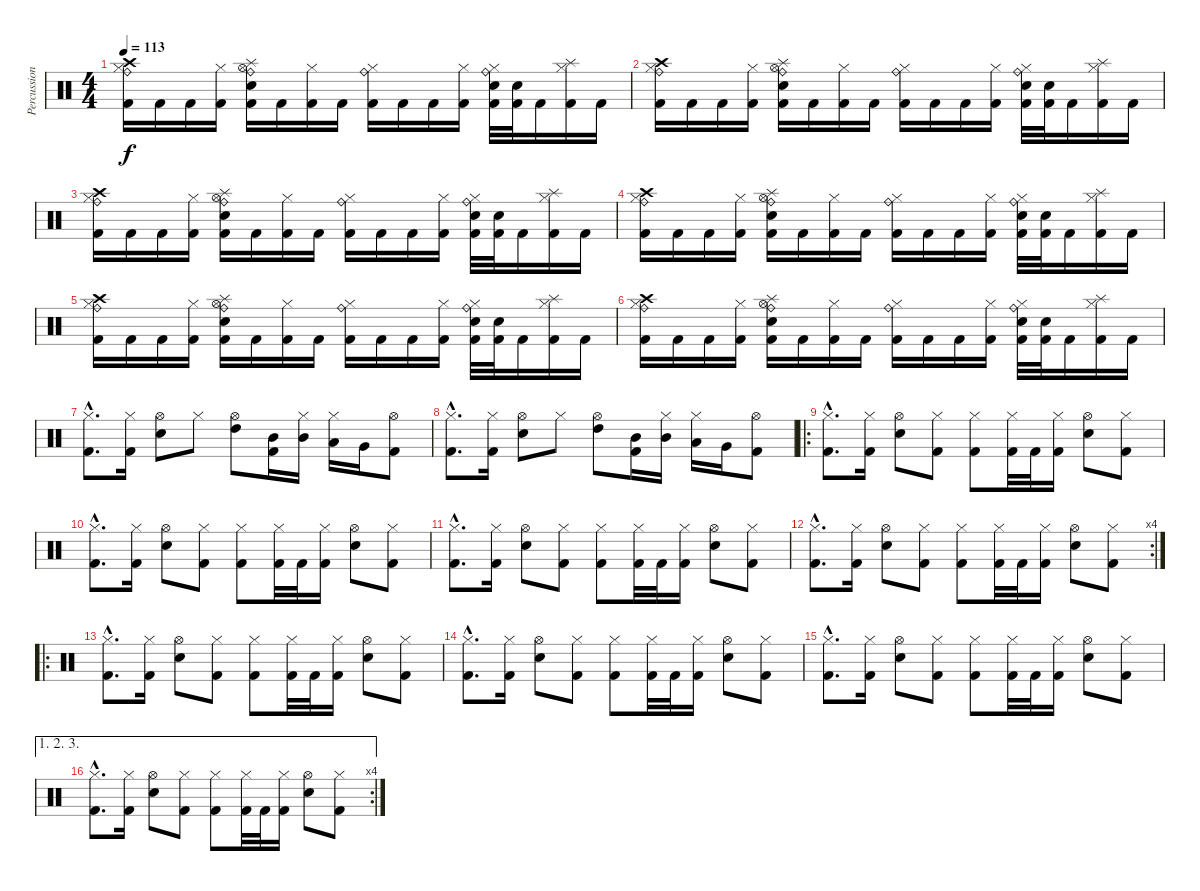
\track ("Percussion" "Percussion") {instrument percussion}
\staff {score}
\articulation defaults
\ts (4 4)
\tempo 113
\clef neutral
\ks c
("Ride (bell)" "Crash high (hit)" "Hi-Hat (closed)" "Kick (hit) 2").16{dy f} "Kick (hit) 2".16 "Kick (hit) 2".16 ("Hi-Hat (closed)" "Kick (hit) 2").16 ("Ride (bell)" "Hi-Hat (open)" "Splash (hit)" "Snare (hit) 2" "Kick (hit) 2").16 "Kick (hit) 2".16 ("Hi-Hat (closed)" "Kick (hit) 2").16 "Kick (hit) 2".16 ("Ride (bell)" "Hi-Hat (closed)" "Kick (hit) 2").16 "Kick (hit) 2".16 "Kick (hit) 2".16 ("Hi-Hat (closed)" "Kick (hit) 2").16 ("Ride (bell)" "Hi-Hat (closed)" "Snare (hit) 2" "Kick (hit) 2").32 ("Snare (hit) 2" "Kick (hit) 2").32 "Kick (hit) 2".16 ("Hi-Hat (closed)" "Splash (hit)" "Kick (hit) 2").16 "Kick (hit) 2".16 |
("Ride (bell)" "Crash high (hit)" "Hi-Hat (closed)" "Kick (hit) 2").16 "Kick (hit) 2".16 "Kick (hit) 2".16 ("Hi-Hat (closed)" "Kick (hit) 2").16 ("Ride (bell)" "Hi-Hat (open)" "Splash (hit)" "Snare (hit) 2" "Kick (hit) 2").16 "Kick (hit) 2".16 ("Hi-Hat (closed)" "Kick (hit) 2").16 "Kick (hit) 2".16 ("Ride (bell)" "Hi-Hat (closed)" "Kick (hit) 2").16 "Kick (hit) 2".16 "Kick (hit) 2".16 ("Hi-Hat (closed)" "Kick (hit) 2").16 ("Ride (bell)" "Hi-Hat (closed)" "Snare (hit) 2" "Kick (hit) 2").32 ("Snare (hit) 2" "Kick (hit) 2").32 "Kick (hit) 2".16 ("Hi-Hat (closed)" "Splash (hit)" "Kick (hit) 2").16 "Kick (hit) 2".16 |
("Ride (bell)" "Crash high (hit)" "Hi-Hat (closed)" "Kick (hit) 2").16 "Kick (hit) 2".16 "Kick (hit) 2".16 ("Hi-Hat (closed)" "Kick (hit) 2").16 ("Ride (bell)" "Hi-Hat (open)" "Splash (hit)" "Snare (hit) 2" "Kick (hit) 2").16 "Kick (hit) 2".16 ("Hi-Hat (closed)" "Kick (hit) 2").16 "Kick (hit) 2".16 ("Ride (bell)" "Hi-Hat (closed)" "Kick (hit) 2").16 "Kick (hit) 2".16 "Kick (hit) 2".16 ("Hi-Hat (closed)" "Kick (hit) 2").16 ("Ride (bell)" "Hi-Hat (closed)" "Snare (hit) 2" "Kick (hit) 2").32 ("Snare (hit) 2" "Kick (hit) 2").32 "Kick (hit) 2".16 ("Hi-Hat (closed)" "Splash (hit)" "Kick (hit) 2").16 "Kick (hit) 2".16 |
("Ride (bell)" "Crash high (hit)" "Hi-Hat (closed)" "Kick (hit) 2").16 "Kick (hit) 2".16 "Kick (hit) 2".16 ("Hi-Hat (closed)" "Kick (hit) 2").16 ("Ride (bell)" "Hi-Hat (open)" "Splash (hit)" "Snare (hit) 2" "Kick (hit) 2").16 "Kick (hit) 2".16 ("Hi-Hat (closed)" "Kick (hit) 2").16 "Kick (hit) 2".16 ("Ride (bell)" "Hi-Hat (closed)" "Kick (hit) 2").16 "Kick (hit) 2".16 "Kick (hit) 2".16 ("Hi-Hat (closed)" "Kick (hit) 2").16 ("Ride (bell)" "Hi-Hat (closed)" "Snare (hit) 2" "Kick (hit) 2").32 ("Snare (hit) 2" "Kick (hit) 2").32 "Kick (hit) 2".16 ("Hi-Hat (closed)" "Splash (hit)" "Kick (hit) 2").16 "Kick (hit) 2".16 |
("Ride (bell)" "Crash high (hit)" "Hi-Hat (closed)" "Kick (hit) 2").16 "Kick (hit) 2".16 "Kick (hit) 2".16 ("Hi-Hat (closed)" "Kick (hit) 2").16 ("Ride (bell)" "Hi-Hat (open)" "Splash (hit)" "Snare (hit) 2" "Kick (hit) 2").16 "Kick (hit) 2".16 ("Hi-Hat (closed)" "Kick (hit) 2").16 "Kick (hit) 2".16 ("Ride (bell)" "Hi-Hat (closed)" "Kick (hit) 2").16 "Kick (hit) 2".16 "Kick (hit) 2".16 ("Hi-Hat (closed)" "Kick (hit) 2").16 ("Ride (bell)" "Hi-Hat (closed)" "Snare (hit) 2" "Kick (hit) 2").32 ("Snare (hit) 2" "Kick (hit) 2").32 "Kick (hit) 2".16 ("Hi-Hat (closed)" "Splash (hit)" "Kick (hit) 2").16 "Kick (hit) 2".16 |
("Ride (bell)" "Crash high (hit)" "Hi-Hat (closed)" "Kick (hit) 2").16 "Kick (hit) 2".16 "Kick (hit) 2".16 ("Hi-Hat (closed)" "Kick (hit) 2").16 ("Ride (bell)" "Hi-Hat (open)" "Splash (hit)" "Snare (hit) 2" "Kick (hit) 2").16 "Kick (hit) 2".16 ("Hi-Hat (closed)" "Kick (hit) 2").16 "Kick (hit) 2".16 ("Ride (bell)" "Hi-Hat (closed)" "Kick (hit) 2").16 "Kick (hit) 2".16 "Kick (hit) 2".16 ("Hi-Hat (closed)" "Kick (hit) 2").16 ("Ride (bell)" "Hi-Hat (closed)" "Snare (hit) 2" "Kick (hit) 2").32 ("Snare (hit) 2" "Kick (hit) 2").32 "Kick (hit) 2".16 ("Hi-Hat (closed)" "Splash (hit)" "Kick (hit) 2").16 "Kick (hit) 2".16 |
("Hi-Hat (closed)"{hac} "Kick (hit) 2"{hac}).8{d} ("Hi-Hat (closed)" "Kick (hit) 2").16 ("Hi-Hat (open)" "Snare (hit) 2").8 "Hi-Hat (closed)".8 ("Hi-Hat (open)" "High Tom (hit)").8 ("Mid Tom (hit)" "Kick (hit) 2").16 ("Hi-Hat (closed)" "Mid Tom (hit)").16 ("Hi-Hat (closed)" "Low Tom (hit)").16 "Very Low Tom (hit)".16 ("Hi-Hat (open)" "Kick (hit) 2").8 |
("Hi-Hat (closed)"{hac} "Kick (hit) 2"{hac}).8{d} ("Hi-Hat (closed)" "Kick (hit) 2").16 ("Hi-Hat (open)" "Snare (hit) 2").8 "Hi-Hat (closed)".8 ("Hi-Hat (open)" "High Tom (hit)").8 ("Mid Tom (hit)" "Kick (hit) 2").16 ("Hi-Hat (closed)" "Mid Tom (hit)").16 ("Hi-Hat (closed)" "Low Tom (hit)").16 "Very Low Tom (hit)".16 ("Hi-Hat (open)" "Kick (hit) 2").8 |
\ro
("Hi-Hat (closed)"{hac} "Kick (hit) 2"{hac}).8{d} ("Hi-Hat (closed)" "Kick (hit) 2").16 ("Hi-Hat (open)" "Snare (hit) 2").8 ("Hi-Hat (closed)" "Kick (hit) 2").8 ("Hi-Hat (closed)" "Kick (hit) 2").8 ("Hi-Hat (closed)" "Kick (hit) 2").32 "Kick (hit) 2".32 ("Hi-Hat (closed)" "Kick (hit) 2").16 ("Hi-Hat (open)" "Snare (hit) 2").8 ("Hi-Hat (closed)" "Kick (hit) 2").8 |
("Hi-Hat (closed)"{hac} "Kick (hit) 2"{hac}).8{d} ("Hi-Hat (closed)" "Kick (hit) 2").16 ("Hi-Hat (open)" "Snare (hit) 2").8 ("Hi-Hat (closed)" "Kick (hit) 2").8 ("Hi-Hat (closed)" "Kick (hit) 2").8 ("Hi-Hat (closed)" "Kick (hit) 2").32 "Kick (hit) 2".32 ("Hi-Hat (closed)" "Kick (hit) 2").16 ("Hi-Hat (open)" "Snare (hit) 2").8 ("Hi-Hat (closed)" "Kick (hit) 2").8 |
("Hi-Hat (closed)"{hac} "Kick (hit) 2"{hac}).8{d} ("Hi-Hat (closed)" "Kick (hit) 2").16 ("Hi-Hat (open)" "Snare (hit) 2").8 ("Hi-Hat (closed)" "Kick (hit) 2").8 ("Hi-Hat (closed)" "Kick (hit) 2").8 ("Hi-Hat (closed)" "Kick (hit) 2").32 "Kick (hit) 2".32 ("Hi-Hat (closed)" "Kick (hit) 2").16 ("Hi-Hat (open)" "Snare (hit) 2").8 ("Hi-Hat (closed)" "Kick (hit) 2").8 |
\rc 4
("Hi-Hat (closed)"{hac} "Kick (hit) 2"{hac}).8{d} ("Hi-Hat (closed)" "Kick (hit) 2").16 ("Hi-Hat (open)" "Snare (hit) 2").8 ("Hi-Hat (closed)" "Kick (hit) 2").8 ("Hi-Hat (closed)" "Kick (hit) 2").8 ("Hi-Hat (closed)" "Kick (hit) 2").32 "Kick (hit) 2".32 ("Hi-Hat (closed)" "Kick (hit) 2").16 ("Hi-Hat (open)" "Snare (hit) 2").8 ("Hi-Hat (closed)" "Kick (hit) 2").8 |
\ro
("Hi-Hat (closed)"{hac} "Kick (hit) 2"{hac}).8{d} ("Hi-Hat (closed)" "Kick (hit) 2").16 ("Hi-Hat (open)" "Snare (hit) 2").8 ("Hi-Hat (closed)" "Kick (hit) 2").8 ("Hi-Hat (closed)" "Kick (hit) 2").8 ("Hi-Hat (closed)" "Kick (hit) 2").32 "Kick (hit) 2".32 ("Hi-Hat (closed)" "Kick (hit) 2").16 ("Hi-Hat (open)" "Snare (hit) 2").8 ("Hi-Hat (closed)" "Kick (hit) 2").8 |
("Hi-Hat (closed)"{hac} "Kick (hit) 2"{hac}).8{d} ("Hi-Hat (closed)" "Kick (hit) 2").16 ("Hi-Hat (open)" "Snare (hit) 2").8 ("Hi-Hat (closed)" "Kick (hit) 2").8 ("Hi-Hat (closed)" "Kick (hit) 2").8 ("Hi-Hat (closed)" "Kick (hit) 2").32 "Kick (hit) 2".32 ("Hi-Hat (closed)" "Kick (hit) 2").16 ("Hi-Hat (open)" "Snare (hit) 2").8 ("Hi-Hat (closed)" "Kick (hit) 2").8 |
("Hi-Hat (closed)"{hac} "Kick (hit) 2"{hac}).8{d} ("Hi-Hat (closed)" "Kick (hit) 2").16 ("Hi-Hat (open)" "Snare (hit) 2").8 ("Hi-Hat (closed)" "Kick (hit) 2").8 ("Hi-Hat (closed)" "Kick (hit) 2").8 ("Hi-Hat (closed)" "Kick (hit) 2").32 "Kick (hit) 2".32 ("Hi-Hat (closed)" "Kick (hit) 2").16 ("Hi-Hat (open)" "Snare (hit) 2").8 ("Hi-Hat (closed)" "Kick (hit) 2").8 |
\ae (1 2 3)
\rc 4
("Hi-Hat (closed)"{hac} "Kick (hit) 2"{hac}).8{d} ("Hi-Hat (closed)" "Kick (hit) 2").16 ("Hi-Hat (open)" "Snare (hit) 2").8 ("Hi-Hat (closed)" "Kick (hit) 2").8 ("Hi-Hat (closed)" "Kick (hit) 2").8 ("Hi-Hat (closed)" "Kick (hit) 2").32 "Kick (hit) 2".32 ("Hi-Hat (closed)" "Kick (hit) 2").16 ("Hi-Hat (open)" "Snare (hit) 2").8 ("Hi-Hat (closed)" "Kick (hit) 2").8
